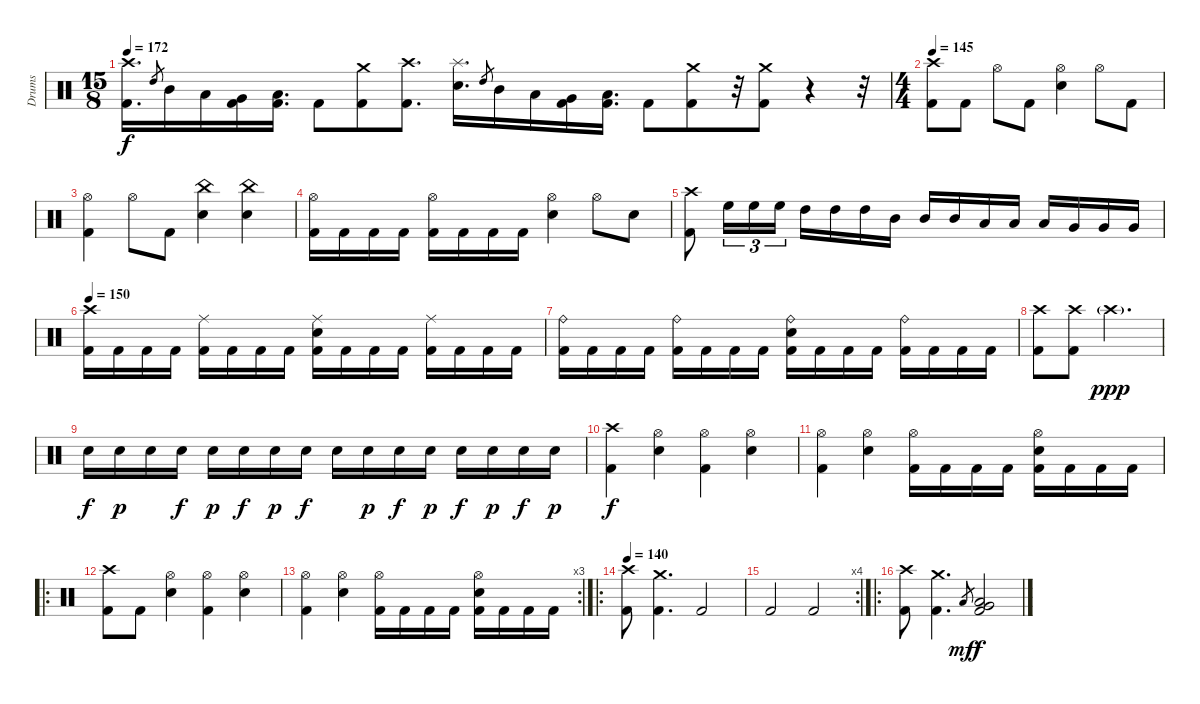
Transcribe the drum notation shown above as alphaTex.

\track ("Drums" "Drums") {instrument percussion}
\staff {score}
\articulation defaults
\ts (15 8)
\tempo 172
\clef neutral
\ks c
("Crash high (hit)" "Kick (hit) 2").16{d dy f} "High Tom (hit)".8{gr} "Mid Tom (hit)".16 "Low Tom (hit)".16 ("Very Low Tom (hit)" "Kick (hit) 2").16 ("Low Floor Tom (hit)" "Kick (hit) 2").16{d} "Kick (hit) 2".8 ("Crash medium (hit)" "Kick (hit) 2").8 ("Crash high (hit)" "Kick (hit) 2").8{d} ("Splash (hit)" "Electric Snare (hit)").16{d} "High Tom (hit)".8{gr} "Mid Tom (hit)".16 "Low Tom (hit)".16 ("Very Low Tom (hit)" "Kick (hit) 2").16 ("Low Floor Tom (hit)" "Kick (hit) 2").16{d} "Kick (hit) 2".8 ("Crash medium (hit)" "Kick (hit) 2").8 r.32 ("Crash medium (hit)" "Kick (hit) 2").8 r.4 r.32 |
\ts (4 4)
\tempo 145
("Crash high (hit)" "Kick (hit) 2").8 "Kick (hit) 2".8 "Hi-Hat (open)".8 "Kick (hit) 2".8 ("Hi-Hat (open)" "Electric Snare (hit)").4 "Hi-Hat (open)".8 "Kick (hit) 2".8 |
("Hi-Hat (open)" "Kick (hit) 2").4 "Hi-Hat (open)".8 "Kick (hit) 2".8 ("China (hit)" "Electric Snare (hit)").4 ("China (hit)" "Electric Snare (hit)").4 |
("Hi-Hat (open)" "Kick (hit) 2").16 "Kick (hit) 2".16 "Kick (hit) 2".16 "Kick (hit) 2".16 ("Hi-Hat (open)" "Kick (hit) 2").16 "Kick (hit) 2".16 "Kick (hit) 2".16 "Kick (hit) 2".16 ("Hi-Hat (open)" "Electric Snare (hit)").4 "Hi-Hat (open)".8 "Electric Snare (hit)".8 |
("Crash high (hit)" "Kick (hit) 2").8 "High Floor Tom (hit)".16{tu (3 2)} "High Floor Tom (hit)".16{tu (3 2)} "High Floor Tom (hit)".16{tu (3 2)} "High Tom (hit)".16 "High Tom (hit)".16 "High Tom (hit)".16 "Mid Tom (hit)".16 "Mid Tom (hit)".16 "Mid Tom (hit)".16 "Low Tom (hit)".16 "Low Tom (hit)".16 "Low Tom (hit)".16 "Very Low Tom (hit)".16 "Very Low Tom (hit)".16 "Very Low Tom (hit)".16 |
\tempo 150
("Crash high (hit)" "Kick (hit) 2").16 "Kick (hit) 2".16 "Kick (hit) 2".16 "Kick (hit) 2".16 ("Ride (middle)" "Kick (hit) 2").16 "Kick (hit) 2".16 "Kick (hit) 2".16 "Kick (hit) 2".16 ("Ride (middle)" "Electric Snare (hit)" "Kick (hit) 2").16 "Kick (hit) 2".16 "Kick (hit) 2".16 "Kick (hit) 2".16 ("Ride (middle)" "Kick (hit) 2").16 "Kick (hit) 2".16 "Kick (hit) 2".16 "Kick (hit) 2".16 |
("Ride (bell)" "Kick (hit) 2").16 "Kick (hit) 2".16 "Kick (hit) 2".16 "Kick (hit) 2".16 ("Ride (bell)" "Kick (hit) 2").16 "Kick (hit) 2".16 "Kick (hit) 2".16 "Kick (hit) 2".16 ("Ride (bell)" "Electric Snare (hit)" "Kick (hit) 2").16 "Kick (hit) 2".16 "Kick (hit) 2".16 "Kick (hit) 2".16 ("Ride (bell)" "Kick (hit) 2").16 "Kick (hit) 2".16 "Kick (hit) 2".16 "Kick (hit) 2".16 |
("Crash high (hit)" "Kick (hit) 2").8 ("Crash high (hit)" "Kick (hit) 2").8 "Crash high (hit)"{g}.2{d dy ppp} |
"Electric Snare (hit)".16{dy f} "Electric Snare (hit)".16{dy p} "Electric Snare (hit)".16 "Electric Snare (hit)".16{dy f} "Electric Snare (hit)".16{dy p} "Electric Snare (hit)".16{dy f} "Electric Snare (hit)".16{dy p} "Electric Snare (hit)".16{dy f} "Electric Snare (hit)".16 "Electric Snare (hit)".16{dy p} "Electric Snare (hit)".16{dy f} "Electric Snare (hit)".16{dy p} "Electric Snare (hit)".16{dy f} "Electric Snare (hit)".16{dy p} "Electric Snare (hit)".16{dy f} "Electric Snare (hit)".16{dy p} |
("Crash high (hit)" "Kick (hit) 2").4{dy f} ("Hi-Hat (open)" "Electric Snare (hit)").4 ("Hi-Hat (open)" "Kick (hit) 2").4 ("Hi-Hat (open)" "Electric Snare (hit)").4 |
("Hi-Hat (open)" "Kick (hit) 2").4 ("Hi-Hat (open)" "Electric Snare (hit)").4 ("Hi-Hat (open)" "Kick (hit) 2").16 "Kick (hit) 2".16 "Kick (hit) 2".16 "Kick (hit) 2".16 ("Hi-Hat (open)" "Electric Snare (hit)" "Kick (hit) 2").16 "Kick (hit) 2".16 "Kick (hit) 2".16 "Kick (hit) 2".16 |
\ro
("Crash high (hit)" "Kick (hit) 2").8 "Kick (hit) 2".8 ("Hi-Hat (open)" "Electric Snare (hit)").4 ("Hi-Hat (open)" "Kick (hit) 2").4 ("Hi-Hat (open)" "Electric Snare (hit)").4 |
\rc 3
("Hi-Hat (open)" "Kick (hit) 2").4 ("Hi-Hat (open)" "Electric Snare (hit)").4 ("Hi-Hat (open)" "Kick (hit) 2").16 "Kick (hit) 2".16 "Kick (hit) 2".16 "Kick (hit) 2".16 ("Hi-Hat (open)" "Electric Snare (hit)" "Kick (hit) 2").16 "Kick (hit) 2".16 "Kick (hit) 2".16 "Kick (hit) 2".16 |
\ro
\tempo 140
("Crash high (hit)" "Kick (hit) 2").8 ("Crash medium (hit)" "Kick (hit) 2").4{d} "Kick (hit) 2".2 |
\rc 4 "Kick (hit) 2".2 "Kick (hit) 2".2
|
\ro
("Crash high (hit)" "Kick (hit) 2").8 ("Crash medium (hit)" "Kick (hit) 2").4{d} "Low Floor Tom (hit)".8{gr dy mf} ("Very Low Tom (hit)" "Low Floor Tom (hit)" "Kick (hit) 2").2{dy f}
